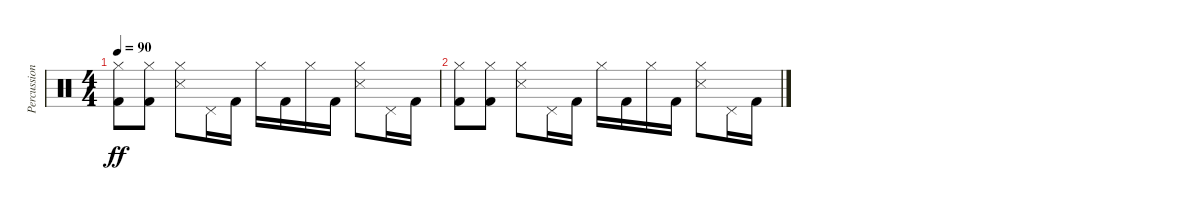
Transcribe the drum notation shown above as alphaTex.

\track ("Percussions" "Percussion") {instrument percussion}
\staff {score}
\articulation defaults
\ts (4 4)
\tempo 90
\clef neutral
\ks c
("Kick (hit) 2" "Hi-Hat (closed)").8{dy ff} ("Kick (hit) 2" "Hi-Hat (closed)").8 ("Snare (side stick) 3" "Hi-Hat (closed)").8 "Pedal Hi-Hat (hit)".16 "Kick (hit) 2".16 "Hi-Hat (closed)".16 "Kick (hit) 2".16 "Hi-Hat (closed)".16 "Kick (hit) 2".16 ("Snare (side stick) 3" "Hi-Hat (closed)").8 "Pedal Hi-Hat (hit)".16 "Kick (hit) 2".16 |
("Kick (hit) 2" "Hi-Hat (closed)").8 ("Kick (hit) 2" "Hi-Hat (closed)").8 ("Snare (side stick) 3" "Hi-Hat (closed)").8 "Pedal Hi-Hat (hit)".16 "Kick (hit) 2".16 "Hi-Hat (closed)".16 "Kick (hit) 2".16 "Hi-Hat (closed)".16 "Kick (hit) 2".16 ("Snare (side stick) 3" "Hi-Hat (closed)").8 "Pedal Hi-Hat (hit)".16 "Kick (hit) 2".16
